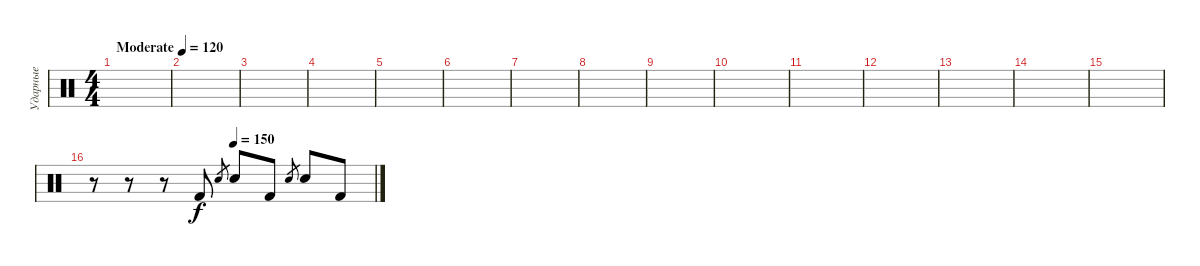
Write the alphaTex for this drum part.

\track ("Ударные" "Ударные") {instrument percussion}
\staff {score}
\articulation defaults
\ts (4 4)
\tempo (120 "Moderate")
\tempo 90
\tempo (120 "Moderate")
\clef neutral
\ks c
|
|
|
|
|
|
|
|
|
|
|
|
|
|
|
\tempo (150 0.5)
r.8 r.8 r.8 "Kick (hit) 2".8 "Electric Snare (hit)".8{gr} "Electric Snare (hit)".8 "Kick (hit) 2".8 "Electric Snare (hit)".8{gr} "Electric Snare (hit)".8 "Kick (hit) 2".8
